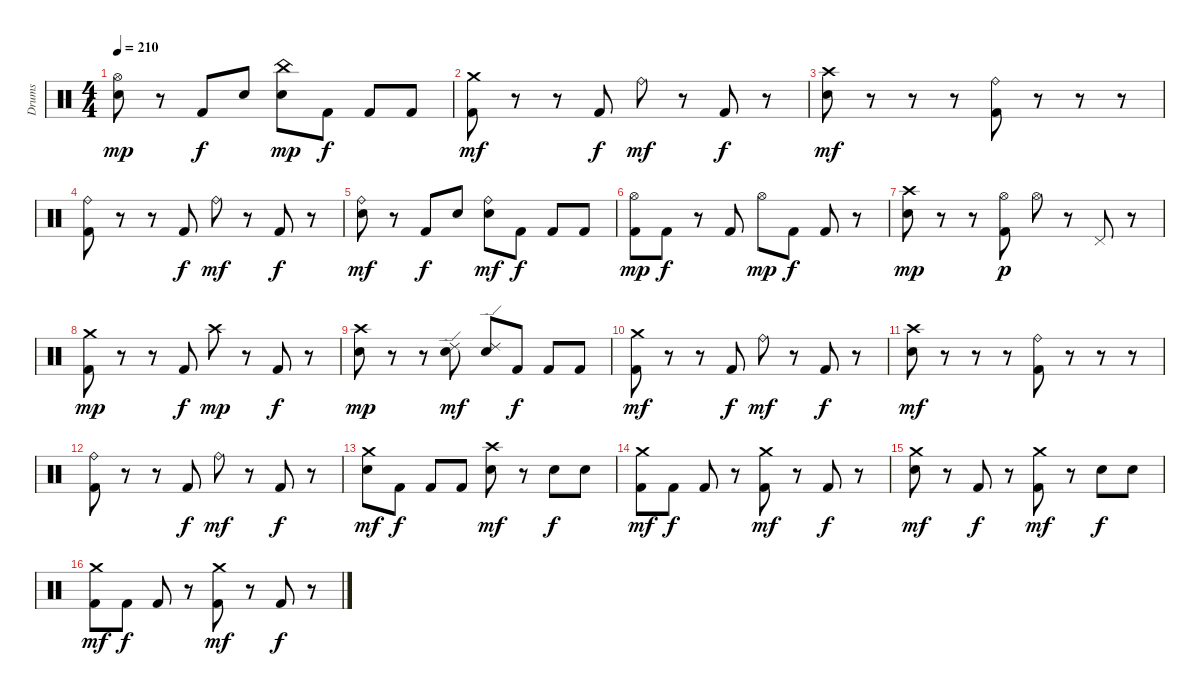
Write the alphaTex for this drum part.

\track ("Drums" "Drums") {instrument percussion}
\staff {score}
\articulation defaults
\ts (4 4)
\tempo 210
\clef neutral
\ks c
("Snare (hit) 2" "Hi-Hat (open)").8{dy mp} r.8 "Kick (hit) 2".8{dy f} "Snare (hit) 2".8 ("Snare (hit) 2" "China (hit)").8{dy mp} "Kick (hit) 2".8{dy f} "Kick (hit) 2".8 "Kick (hit) 2".8 |
("Kick (hit) 2" "Crash medium (hit)").8{dy mf} r.8 r.8 "Kick (hit) 2".8{dy f} "Ride (bell)".8{dy mf} r.8 "Kick (hit) 2".8{dy f} r.8 |
("Snare (hit) 2" "Crash high (hit)").8{dy mf} r.8 r.8 r.8 ("Kick (hit) 2" "Ride (bell)").8 r.8 r.8 r.8 |
("Kick (hit) 2" "Ride (bell)").8 r.8 r.8 "Kick (hit) 2".8{dy f} "Ride (bell)".8{dy mf} r.8 "Kick (hit) 2".8{dy f} r.8 |
("Snare (hit) 2" "Ride (bell)").8{dy mf} r.8 "Kick (hit) 2".8{dy f} "Snare (hit) 2".8 ("Snare (hit) 2" "Ride (bell)").8{dy mf} "Kick (hit) 2".8{dy f} "Kick (hit) 2".8 "Kick (hit) 2".8 |
("Kick (hit) 2" "Hi-Hat (open)").8{dy mp} "Kick (hit) 2".8{dy f} r.8 "Kick (hit) 2".8 "Hi-Hat (open)".8{dy mp} "Kick (hit) 2".8{dy f} "Kick (hit) 2".8 r.8 |
("Snare (hit) 2" "Crash high (hit)").8{dy mp} r.8 r.8 ("Kick (hit) 2" "Hi-Hat (open)").8{dy p} "Hi-Hat (open)".8 r.8 "Pedal Hi-Hat (hit)".8 r.8 |
("Kick (hit) 2" "Crash medium (hit)").8{dy mp} r.8 r.8 "Kick (hit) 2".8{dy f} "Crash high (hit)".8{dy mp} r.8 "Kick (hit) 2".8{dy f} r.8 |
("Snare (hit) 2" "Crash high (hit)").8{dy mp} r.8 r.8 ("Snare (hit) 2" "Ride (edge) 2").8{dy mf} ("Snare (hit) 2" "Ride (edge) 2").8 "Kick (hit) 2".8{dy f} "Kick (hit) 2".8 "Kick (hit) 2".8 |
("Kick (hit) 2" "Crash medium (hit)").8{dy mf} r.8 r.8 "Kick (hit) 2".8{dy f} "Ride (bell)".8{dy mf} r.8 "Kick (hit) 2".8{dy f} r.8 |
("Snare (hit) 2" "Crash high (hit)").8{dy mf} r.8 r.8 r.8 ("Kick (hit) 2" "Ride (bell)").8 r.8 r.8 r.8 |
("Kick (hit) 2" "Ride (bell)").8 r.8 r.8 "Kick (hit) 2".8{dy f} "Ride (bell)".8{dy mf} r.8 "Kick (hit) 2".8{dy f} r.8 |
("Snare (hit) 2" "Crash medium (hit)").8{dy mf} "Kick (hit) 2".8{dy f} "Kick (hit) 2".8 "Kick (hit) 2".8 ("Snare (hit) 2" "Crash high (hit)").8{dy mf} r.8 "Snare (hit) 2".8{dy f} "Snare (hit) 2".8 |
("Kick (hit) 2" "Crash medium (hit)").8{dy mf} "Kick (hit) 2".8{dy f} "Kick (hit) 2".8 r.8 ("Kick (hit) 2" "Crash medium (hit)").8{dy mf} r.8 "Kick (hit) 2".8{dy f} r.8 |
("Snare (hit) 2" "Crash medium (hit)").8{dy mf} r.8 "Kick (hit) 2".8{dy f} r.8 ("Kick (hit) 2" "Crash medium (hit)").8{dy mf} r.8 "Snare (hit) 2".8{dy f} "Snare (hit) 2".8 |
("Kick (hit) 2" "Crash medium (hit)").8{dy mf} "Kick (hit) 2".8{dy f} "Kick (hit) 2".8 r.8 ("Kick (hit) 2" "Crash medium (hit)").8{dy mf} r.8 "Kick (hit) 2".8{dy f} r.8
